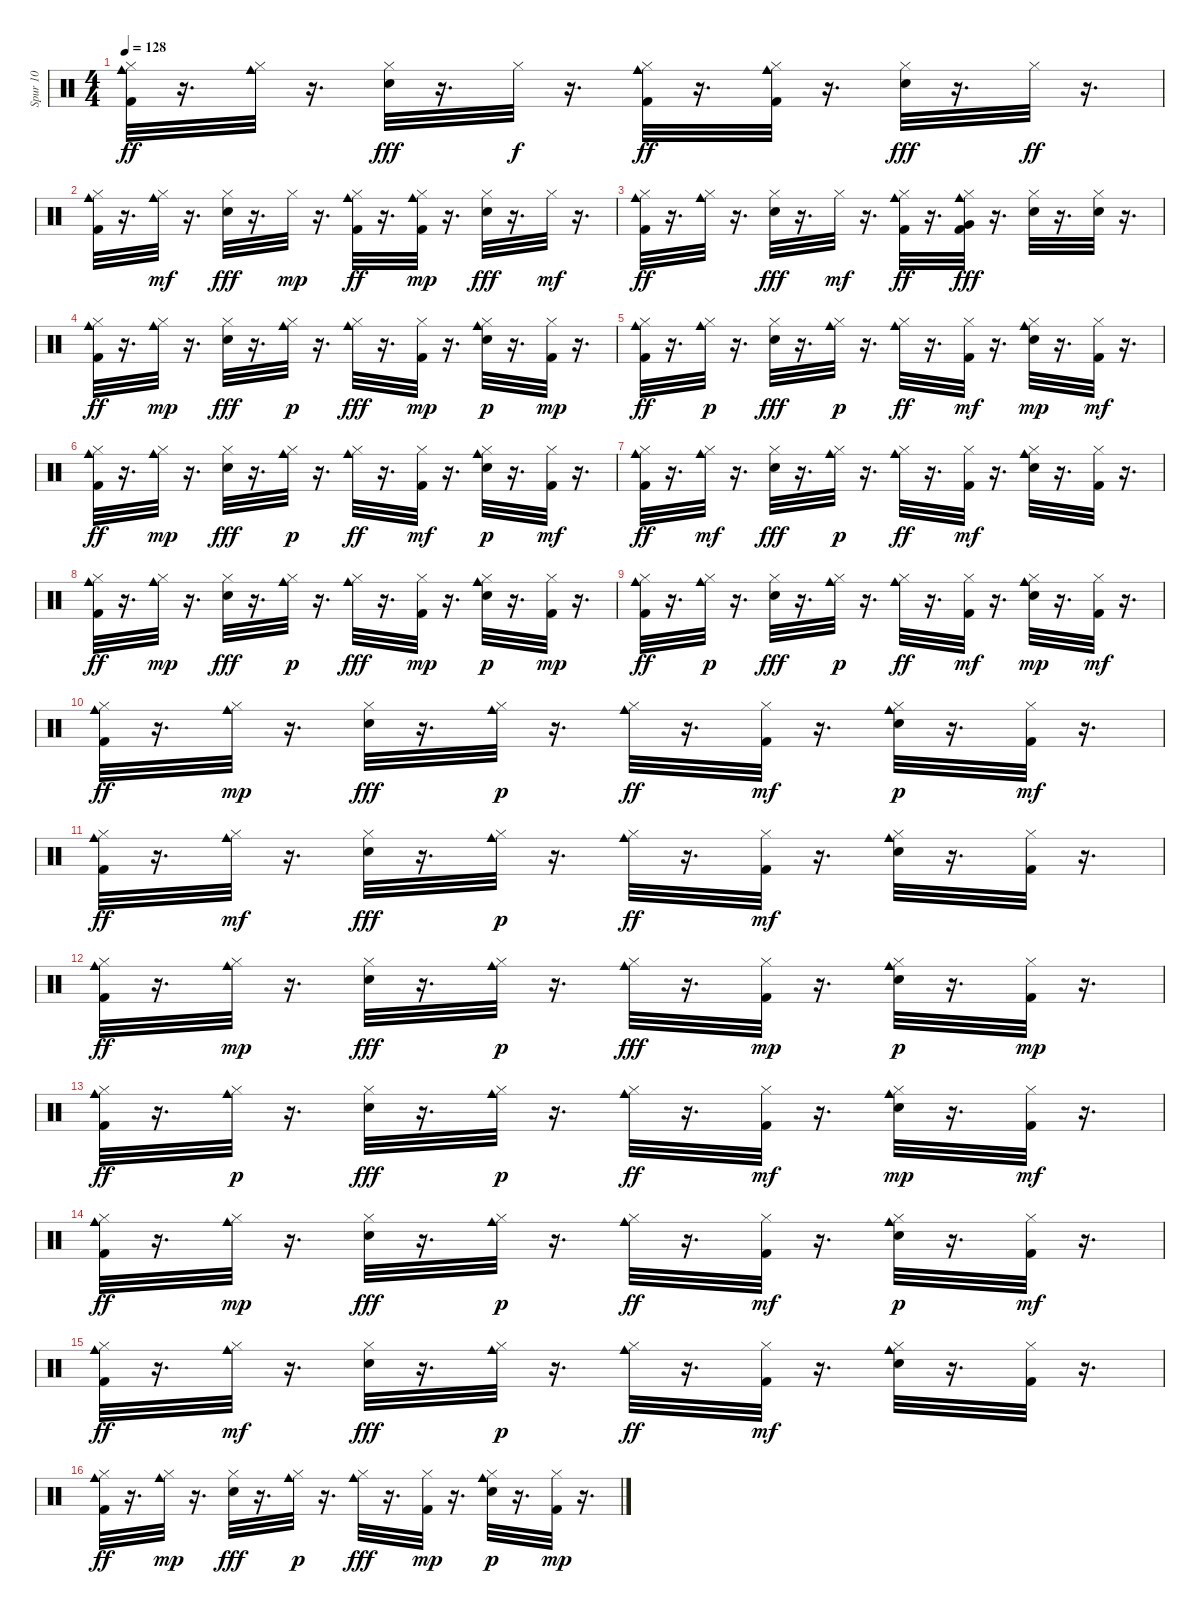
\track ("Spur 10" "Spur 10") {instrument percussion}
\staff {score}
\articulation defaults
\ts (4 4)
\tempo 128
\clef neutral
\ks c
("Kick (hit) 2" "Hi-Hat (closed)" "Cowbell medium (hit)").32{dy ff} r.16{d} ("Hi-Hat (closed)" "Cowbell medium (hit)").32 r.16{d} ("Electric Snare (hit)" "Hi-Hat (closed)").32{dy fff} r.16{d} "Hi-Hat (closed)".32{dy f} r.16{d} ("Kick (hit) 2" "Hi-Hat (closed)" "Cowbell medium (hit)").32{dy ff} r.16{d} ("Kick (hit) 2" "Hi-Hat (closed)" "Cowbell medium (hit)").32 r.16{d} ("Electric Snare (hit)" "Hi-Hat (closed)").32{dy fff} r.16{d} "Hi-Hat (closed)".32{dy ff} r.16{d} |
("Kick (hit) 2" "Hi-Hat (closed)" "Cowbell medium (hit)").32 r.16{d} ("Hi-Hat (closed)" "Cowbell medium (hit)").32{dy mf} r.16{d} ("Electric Snare (hit)" "Hi-Hat (closed)").32{dy fff} r.16{d} "Hi-Hat (closed)".32{dy mp} r.16{d} ("Kick (hit) 2" "Hi-Hat (closed)" "Cowbell medium (hit)").32{dy ff} r.16{d} ("Kick (hit) 2" "Hi-Hat (closed)" "Cowbell medium (hit)").32{dy mp} r.16{d} ("Electric Snare (hit)" "Hi-Hat (closed)").32{dy fff} r.16{d} "Hi-Hat (closed)".32{dy mf} r.16{d} |
("Kick (hit) 2" "Hi-Hat (closed)" "Cowbell medium (hit)").32{dy ff} r.16{d} ("Hi-Hat (closed)" "Cowbell medium (hit)").32 r.16{d} ("Electric Snare (hit)" "Hi-Hat (closed)").32{dy fff} r.16{d} "Hi-Hat (closed)".32{dy mf} r.16{d} ("Kick (hit) 2" "Hi-Hat (closed)" "Cowbell medium (hit)").32{dy ff} r.16{d} ("Kick (hit) 2" "Hi-Hat (closed)" "Cowbell medium (hit)" "Very Low Tom (hit)").32{dy fff} r.16{d} ("Electric Snare (hit)" "Hi-Hat (closed)").32 r.16{d} ("Hi-Hat (closed)" "Electric Snare (hit)").32 r.16{d} |
("Kick (hit) 2" "Hi-Hat (closed)" "Cowbell medium (hit)").32{dy ff} r.16{d} ("Hi-Hat (closed)" "Cowbell medium (hit)").32{dy mp} r.16{d} ("Electric Snare (hit)" "Hi-Hat (closed)").32{dy fff} r.16{d} ("Hi-Hat (closed)" "Cowbell medium (hit)").32{dy p} r.16{d} ("Hi-Hat (closed)" "Cowbell medium (hit)").32{dy fff} r.16{d} ("Kick (hit) 2" "Hi-Hat (closed)").32{dy mp} r.16{d} ("Electric Snare (hit)" "Hi-Hat (closed)" "Cowbell medium (hit)").32{dy p} r.16{d} ("Kick (hit) 2" "Hi-Hat (closed)").32{dy mp} r.16{d} |
("Kick (hit) 2" "Hi-Hat (closed)" "Cowbell medium (hit)").32{dy ff} r.16{d} ("Hi-Hat (closed)" "Cowbell medium (hit)").32{dy p} r.16{d} ("Electric Snare (hit)" "Hi-Hat (closed)").32{dy fff} r.16{d} ("Hi-Hat (closed)" "Cowbell medium (hit)").32{dy p} r.16{d} ("Hi-Hat (closed)" "Cowbell medium (hit)").32{dy ff} r.16{d} ("Kick (hit) 2" "Hi-Hat (closed)").32{dy mf} r.16{d} ("Electric Snare (hit)" "Hi-Hat (closed)" "Cowbell medium (hit)").32{dy mp} r.16{d} ("Kick (hit) 2" "Hi-Hat (closed)").32{dy mf} r.16{d} |
("Kick (hit) 2" "Hi-Hat (closed)" "Cowbell medium (hit)").32{dy ff} r.16{d} ("Hi-Hat (closed)" "Cowbell medium (hit)").32{dy mp} r.16{d} ("Electric Snare (hit)" "Hi-Hat (closed)").32{dy fff} r.16{d} ("Hi-Hat (closed)" "Cowbell medium (hit)").32{dy p} r.16{d} ("Hi-Hat (closed)" "Cowbell medium (hit)").32{dy ff} r.16{d} ("Kick (hit) 2" "Hi-Hat (closed)").32{dy mf} r.16{d} ("Electric Snare (hit)" "Hi-Hat (closed)" "Cowbell medium (hit)").32{dy p} r.16{d} ("Kick (hit) 2" "Hi-Hat (closed)").32{dy mf} r.16{d} |
("Kick (hit) 2" "Hi-Hat (closed)" "Cowbell medium (hit)").32{dy ff} r.16{d} ("Hi-Hat (closed)" "Cowbell medium (hit)").32{dy mf} r.16{d} ("Electric Snare (hit)" "Hi-Hat (closed)").32{dy fff} r.16{d} ("Hi-Hat (closed)" "Cowbell medium (hit)").32{dy p} r.16{d} ("Hi-Hat (closed)" "Cowbell medium (hit)").32{dy ff} r.16{d} ("Kick (hit) 2" "Hi-Hat (closed)").32{dy mf} r.16{d} ("Electric Snare (hit)" "Hi-Hat (closed)" "Cowbell medium (hit)").32 r.16{d} ("Kick (hit) 2" "Hi-Hat (closed)").32 r.16{d} |
("Kick (hit) 2" "Hi-Hat (closed)" "Cowbell medium (hit)").32{dy ff} r.16{d} ("Hi-Hat (closed)" "Cowbell medium (hit)").32{dy mp} r.16{d} ("Electric Snare (hit)" "Hi-Hat (closed)").32{dy fff} r.16{d} ("Hi-Hat (closed)" "Cowbell medium (hit)").32{dy p} r.16{d} ("Hi-Hat (closed)" "Cowbell medium (hit)").32{dy fff} r.16{d} ("Kick (hit) 2" "Hi-Hat (closed)").32{dy mp} r.16{d} ("Electric Snare (hit)" "Hi-Hat (closed)" "Cowbell medium (hit)").32{dy p} r.16{d} ("Kick (hit) 2" "Hi-Hat (closed)").32{dy mp} r.16{d} |
("Kick (hit) 2" "Hi-Hat (closed)" "Cowbell medium (hit)").32{dy ff} r.16{d} ("Hi-Hat (closed)" "Cowbell medium (hit)").32{dy p} r.16{d} ("Electric Snare (hit)" "Hi-Hat (closed)").32{dy fff} r.16{d} ("Hi-Hat (closed)" "Cowbell medium (hit)").32{dy p} r.16{d} ("Hi-Hat (closed)" "Cowbell medium (hit)").32{dy ff} r.16{d} ("Kick (hit) 2" "Hi-Hat (closed)").32{dy mf} r.16{d} ("Electric Snare (hit)" "Hi-Hat (closed)" "Cowbell medium (hit)").32{dy mp} r.16{d} ("Kick (hit) 2" "Hi-Hat (closed)").32{dy mf} r.16{d} |
("Kick (hit) 2" "Hi-Hat (closed)" "Cowbell medium (hit)").32{dy ff} r.16{d} ("Hi-Hat (closed)" "Cowbell medium (hit)").32{dy mp} r.16{d} ("Electric Snare (hit)" "Hi-Hat (closed)").32{dy fff} r.16{d} ("Hi-Hat (closed)" "Cowbell medium (hit)").32{dy p} r.16{d} ("Hi-Hat (closed)" "Cowbell medium (hit)").32{dy ff} r.16{d} ("Kick (hit) 2" "Hi-Hat (closed)").32{dy mf} r.16{d} ("Electric Snare (hit)" "Hi-Hat (closed)" "Cowbell medium (hit)").32{dy p} r.16{d} ("Kick (hit) 2" "Hi-Hat (closed)").32{dy mf} r.16{d} |
("Kick (hit) 2" "Hi-Hat (closed)" "Cowbell medium (hit)").32{dy ff} r.16{d} ("Hi-Hat (closed)" "Cowbell medium (hit)").32{dy mf} r.16{d} ("Electric Snare (hit)" "Hi-Hat (closed)").32{dy fff} r.16{d} ("Hi-Hat (closed)" "Cowbell medium (hit)").32{dy p} r.16{d} ("Hi-Hat (closed)" "Cowbell medium (hit)").32{dy ff} r.16{d} ("Kick (hit) 2" "Hi-Hat (closed)").32{dy mf} r.16{d} ("Electric Snare (hit)" "Hi-Hat (closed)" "Cowbell medium (hit)").32 r.16{d} ("Kick (hit) 2" "Hi-Hat (closed)").32 r.16{d} |
("Kick (hit) 2" "Hi-Hat (closed)" "Cowbell medium (hit)").32{dy ff} r.16{d} ("Hi-Hat (closed)" "Cowbell medium (hit)").32{dy mp} r.16{d} ("Electric Snare (hit)" "Hi-Hat (closed)").32{dy fff} r.16{d} ("Hi-Hat (closed)" "Cowbell medium (hit)").32{dy p} r.16{d} ("Hi-Hat (closed)" "Cowbell medium (hit)").32{dy fff} r.16{d} ("Kick (hit) 2" "Hi-Hat (closed)").32{dy mp} r.16{d} ("Electric Snare (hit)" "Hi-Hat (closed)" "Cowbell medium (hit)").32{dy p} r.16{d} ("Kick (hit) 2" "Hi-Hat (closed)").32{dy mp} r.16{d} |
("Kick (hit) 2" "Hi-Hat (closed)" "Cowbell medium (hit)").32{dy ff} r.16{d} ("Hi-Hat (closed)" "Cowbell medium (hit)").32{dy p} r.16{d} ("Electric Snare (hit)" "Hi-Hat (closed)").32{dy fff} r.16{d} ("Hi-Hat (closed)" "Cowbell medium (hit)").32{dy p} r.16{d} ("Hi-Hat (closed)" "Cowbell medium (hit)").32{dy ff} r.16{d} ("Kick (hit) 2" "Hi-Hat (closed)").32{dy mf} r.16{d} ("Electric Snare (hit)" "Hi-Hat (closed)" "Cowbell medium (hit)").32{dy mp} r.16{d} ("Kick (hit) 2" "Hi-Hat (closed)").32{dy mf} r.16{d} |
("Kick (hit) 2" "Hi-Hat (closed)" "Cowbell medium (hit)").32{dy ff} r.16{d} ("Hi-Hat (closed)" "Cowbell medium (hit)").32{dy mp} r.16{d} ("Electric Snare (hit)" "Hi-Hat (closed)").32{dy fff} r.16{d} ("Hi-Hat (closed)" "Cowbell medium (hit)").32{dy p} r.16{d} ("Hi-Hat (closed)" "Cowbell medium (hit)").32{dy ff} r.16{d} ("Kick (hit) 2" "Hi-Hat (closed)").32{dy mf} r.16{d} ("Electric Snare (hit)" "Hi-Hat (closed)" "Cowbell medium (hit)").32{dy p} r.16{d} ("Kick (hit) 2" "Hi-Hat (closed)").32{dy mf} r.16{d} |
("Kick (hit) 2" "Hi-Hat (closed)" "Cowbell medium (hit)").32{dy ff} r.16{d} ("Hi-Hat (closed)" "Cowbell medium (hit)").32{dy mf} r.16{d} ("Electric Snare (hit)" "Hi-Hat (closed)").32{dy fff} r.16{d} ("Hi-Hat (closed)" "Cowbell medium (hit)").32{dy p} r.16{d} ("Hi-Hat (closed)" "Cowbell medium (hit)").32{dy ff} r.16{d} ("Kick (hit) 2" "Hi-Hat (closed)").32{dy mf} r.16{d} ("Electric Snare (hit)" "Hi-Hat (closed)" "Cowbell medium (hit)").32 r.16{d} ("Kick (hit) 2" "Hi-Hat (closed)").32 r.16{d} |
("Kick (hit) 2" "Hi-Hat (closed)" "Cowbell medium (hit)").32{dy ff} r.16{d} ("Hi-Hat (closed)" "Cowbell medium (hit)").32{dy mp} r.16{d} ("Electric Snare (hit)" "Hi-Hat (closed)").32{dy fff} r.16{d} ("Hi-Hat (closed)" "Cowbell medium (hit)").32{dy p} r.16{d} ("Hi-Hat (closed)" "Cowbell medium (hit)").32{dy fff} r.16{d} ("Kick (hit) 2" "Hi-Hat (closed)").32{dy mp} r.16{d} ("Electric Snare (hit)" "Hi-Hat (closed)" "Cowbell medium (hit)").32{dy p} r.16{d} ("Kick (hit) 2" "Hi-Hat (closed)").32{dy mp} r.16{d}
